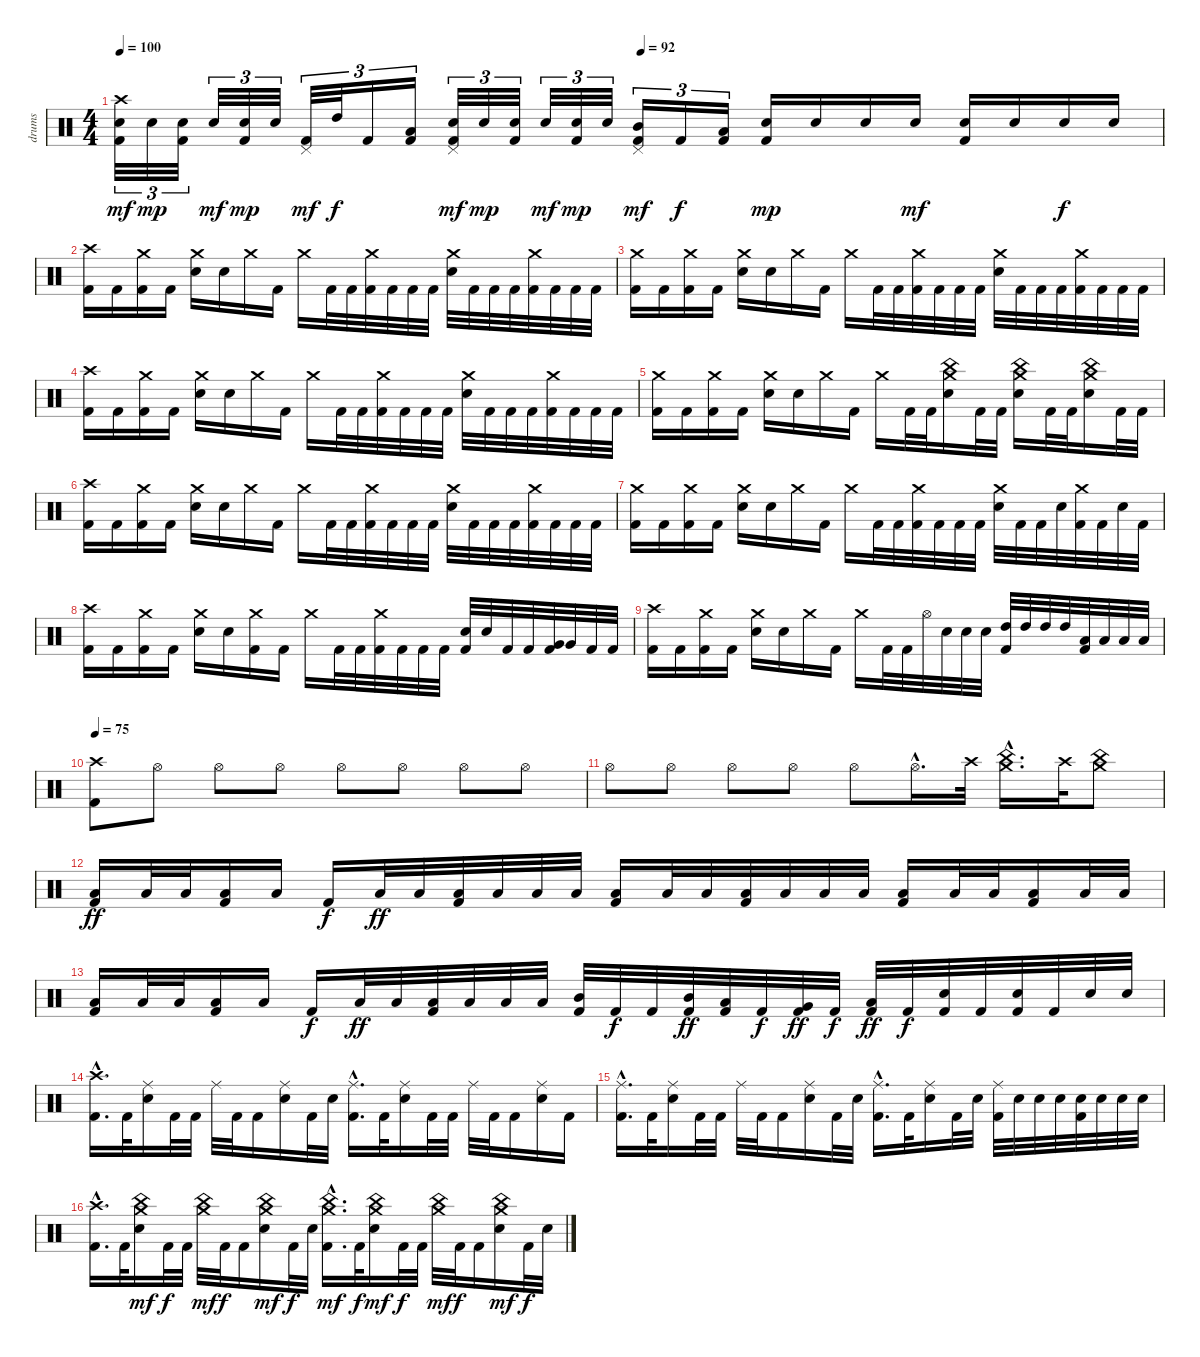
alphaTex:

\track ("drums" "drums") {instrument percussion}
\staff {score}
\articulation defaults
\ts (4 4)
\tempo 100
\tempo (92 0.5)
\clef neutral
\ks c
("Crash high (hit)" "Electric Snare (hit)" "Kick (hit) 2").32{tu (3 2) dy mf} "Electric Snare (hit)".32{tu (3 2) dy mp} ("Electric Snare (hit)" "Kick (hit) 2").32{tu (3 2)} "Electric Snare (hit)".32{tu (3 2) dy mf} ("Electric Snare (hit)" "Kick (hit) 2").32{tu (3 2) dy mp} "Electric Snare (hit)".32{tu (3 2)} ("Pedal Hi-Hat (hit)" "Kick (hit) 2").32{tu (3 2) dy mf} "High Tom (hit)".32{tu (3 2) dy f} "Kick (hit) 2".16{tu (3 2)} ("Low Tom (hit)" "Kick (hit) 2").16{tu (3 2)} ("Pedal Hi-Hat (hit)" "Electric Snare (hit)" "Kick (hit) 2").32{tu (3 2) dy mf} "Electric Snare (hit)".32{tu (3 2) dy mp} ("Electric Snare (hit)" "Kick (hit) 2").32{tu (3 2)} "Electric Snare (hit)".32{tu (3 2) dy mf} ("Electric Snare (hit)" "Kick (hit) 2").32{tu (3 2) dy mp} "Electric Snare (hit)".32{tu (3 2)} ("Pedal Hi-Hat (hit)" "Mid Tom (hit)" "Kick (hit) 2").16{tu (3 2) dy mf} "Kick (hit) 2".16{tu (3 2) dy f} ("Low Floor Tom (hit)" "Kick (hit) 2").16{tu (3 2)} ("Electric Snare (hit)" "Kick (hit) 2").16{dy mp} "Electric Snare (hit)".16 "Electric Snare (hit)".16 "Electric Snare (hit)".16{dy mf} ("Electric Snare (hit)" "Kick (hit) 2").16 "Electric Snare (hit)".16 "Electric Snare (hit)".16{dy f} "Electric Snare (hit)".16 |
("Crash high (hit)" "Kick (hit) 2").16 "Kick (hit) 2".16 ("Crash medium (hit)" "Kick (hit) 2").16 "Kick (hit) 2".16 ("Crash medium (hit)" "Electric Snare (hit)").16 "Electric Snare (hit)".16 "Crash medium (hit)".16 "Kick (hit) 2".16 "Crash medium (hit)".16 "Kick (hit) 2".32 "Kick (hit) 2".32 ("Crash medium (hit)" "Kick (hit) 2").32 "Kick (hit) 2".32 "Kick (hit) 2".32 "Kick (hit) 2".32 ("Crash medium (hit)" "Electric Snare (hit)").32 "Kick (hit) 2".32 "Kick (hit) 2".32 "Kick (hit) 2".32 ("Crash medium (hit)" "Kick (hit) 2").32 "Kick (hit) 2".32 "Kick (hit) 2".32 "Kick (hit) 2".32 |
("Crash medium (hit)" "Kick (hit) 2").16 "Kick (hit) 2".16 ("Crash medium (hit)" "Kick (hit) 2").16 "Kick (hit) 2".16 ("Crash medium (hit)" "Electric Snare (hit)").16 "Electric Snare (hit)".16 "Crash medium (hit)".16 "Kick (hit) 2".16 "Crash medium (hit)".16 "Kick (hit) 2".32 "Kick (hit) 2".32 ("Crash medium (hit)" "Kick (hit) 2").32 "Kick (hit) 2".32 "Kick (hit) 2".32 "Kick (hit) 2".32 ("Crash medium (hit)" "Electric Snare (hit)").32 "Kick (hit) 2".32 "Kick (hit) 2".32 "Kick (hit) 2".32 ("Crash medium (hit)" "Kick (hit) 2").32 "Kick (hit) 2".32 "Kick (hit) 2".32 "Kick (hit) 2".32 |
("Crash high (hit)" "Kick (hit) 2").16 "Kick (hit) 2".16 ("Crash medium (hit)" "Kick (hit) 2").16 "Kick (hit) 2".16 ("Crash medium (hit)" "Electric Snare (hit)").16 "Electric Snare (hit)".16 "Crash medium (hit)".16 "Kick (hit) 2".16 "Crash medium (hit)".16 "Kick (hit) 2".32 "Kick (hit) 2".32 ("Crash medium (hit)" "Kick (hit) 2").32 "Kick (hit) 2".32 "Kick (hit) 2".32 "Kick (hit) 2".32 ("Crash medium (hit)" "Electric Snare (hit)").32 "Kick (hit) 2".32 "Kick (hit) 2".32 "Kick (hit) 2".32 ("Crash medium (hit)" "Kick (hit) 2").32 "Kick (hit) 2".32 "Kick (hit) 2".32 "Kick (hit) 2".32 |
("Crash medium (hit)" "Kick (hit) 2").16 "Kick (hit) 2".16 ("Crash medium (hit)" "Kick (hit) 2").16 "Kick (hit) 2".16 ("Crash medium (hit)" "Electric Snare (hit)").16 "Electric Snare (hit)".16 "Crash medium (hit)".16 "Kick (hit) 2".16 "Crash medium (hit)".16 "Kick (hit) 2".32 "Kick (hit) 2".32 ("Crash medium (hit)" "China (hit)" "Electric Snare (hit)").16 "Kick (hit) 2".32 "Kick (hit) 2".32 ("Crash medium (hit)" "China (hit)" "Electric Snare (hit)").16 "Kick (hit) 2".32 "Kick (hit) 2".32 ("Crash medium (hit)" "China (hit)" "Electric Snare (hit)").16 "Kick (hit) 2".32 "Kick (hit) 2".32 |
("Crash high (hit)" "Kick (hit) 2").16 "Kick (hit) 2".16 ("Crash medium (hit)" "Kick (hit) 2").16 "Kick (hit) 2".16 ("Crash medium (hit)" "Electric Snare (hit)").16 "Electric Snare (hit)".16 "Crash medium (hit)".16 "Kick (hit) 2".16 "Crash medium (hit)".16 "Kick (hit) 2".32 "Kick (hit) 2".32 ("Crash medium (hit)" "Kick (hit) 2").32 "Kick (hit) 2".32 "Kick (hit) 2".32 "Kick (hit) 2".32 ("Crash medium (hit)" "Electric Snare (hit)").32 "Kick (hit) 2".32 "Kick (hit) 2".32 "Kick (hit) 2".32 ("Crash medium (hit)" "Kick (hit) 2").32 "Kick (hit) 2".32 "Kick (hit) 2".32 "Kick (hit) 2".32 |
("Crash medium (hit)" "Kick (hit) 2").16 "Kick (hit) 2".16 ("Crash medium (hit)" "Kick (hit) 2").16 "Kick (hit) 2".16 ("Crash medium (hit)" "Electric Snare (hit)").16 "Electric Snare (hit)".16 "Crash medium (hit)".16 "Kick (hit) 2".16 "Crash medium (hit)".16 "Kick (hit) 2".32 "Kick (hit) 2".32 ("Crash medium (hit)" "Kick (hit) 2").32 "Kick (hit) 2".32 "Kick (hit) 2".32 "Kick (hit) 2".32 ("Crash medium (hit)" "Electric Snare (hit)").32 "Kick (hit) 2".32 "Kick (hit) 2".32 "Electric Snare (hit)".32 ("Crash medium (hit)" "Kick (hit) 2").32 "Kick (hit) 2".32 "Electric Snare (hit)".32 "Kick (hit) 2".32 |
("Crash high (hit)" "Kick (hit) 2").16 "Kick (hit) 2".16 ("Crash medium (hit)" "Kick (hit) 2").16 "Kick (hit) 2".16 ("Crash medium (hit)" "Electric Snare (hit)").16 "Electric Snare (hit)".16 ("Crash medium (hit)" "Kick (hit) 2").16 "Kick (hit) 2".16 "Crash medium (hit)".16 "Kick (hit) 2".32 "Kick (hit) 2".32 ("Crash medium (hit)" "Kick (hit) 2").32 "Kick (hit) 2".32 "Kick (hit) 2".32 "Kick (hit) 2".32 ("Electric Snare (hit)" "Kick (hit) 2").32 "Electric Snare (hit)".32 "Kick (hit) 2".32 "Kick (hit) 2".32 ("Very Low Tom (hit)" "Kick (hit) 2").32 "Very Low Tom (hit)".32 "Kick (hit) 2".32 "Kick (hit) 2".32 |
("Crash high (hit)" "Kick (hit) 2").16 "Kick (hit) 2".16 ("Crash medium (hit)" "Kick (hit) 2").16 "Kick (hit) 2".16 ("Crash medium (hit)" "Electric Snare (hit)").16 "Electric Snare (hit)".16 "Crash medium (hit)".16 "Kick (hit) 2".16 "Crash medium (hit)".16 "Kick (hit) 2".32 "Kick (hit) 2".32 "Hi-Hat (open)".32 "Electric Snare (hit)".32 "Electric Snare (hit)".32 "Electric Snare (hit)".32 ("High Tom (hit)" "Kick (hit) 2").32 "High Tom (hit)".32 "High Tom (hit)".32 "High Tom (hit)".32 ("Low Tom (hit)" "Kick (hit) 2").32 "Low Tom (hit)".32 "Low Tom (hit)".32 "Low Tom (hit)".32 |
\tempo 75
("Crash high (hit)" "Kick (hit) 2").8 "Hi-Hat (open)".8 "Hi-Hat (open)".8 "Hi-Hat (open)".8 "Hi-Hat (open)".8 "Hi-Hat (open)".8 "Hi-Hat (open)".8 "Hi-Hat (open)".8 |
"Hi-Hat (open)".8 "Hi-Hat (open)".8 "Hi-Hat (open)".8 "Hi-Hat (open)".8 "Hi-Hat (open)".8 "Hi-Hat (open)"{hac}.16{d} "Crash high (hit)".32 ("Crash medium (hit)"{hac} "China (hit)"{hac}).16{d} "Crash high (hit)".32 ("Crash medium (hit)" "China (hit)").8 |
("Low Floor Tom (hit)" "Kick (hit) 2").16{dy ff} "Low Floor Tom (hit)".32 "Low Floor Tom (hit)".32 ("Low Floor Tom (hit)" "Kick (hit) 2").16 "Low Floor Tom (hit)".16 "Kick (hit) 2".16{dy f} "Low Floor Tom (hit)".32{dy ff} "Low Floor Tom (hit)".32 ("Low Floor Tom (hit)" "Kick (hit) 2").32 "Low Floor Tom (hit)".32 "Low Floor Tom (hit)".32 "Low Floor Tom (hit)".32 ("Low Floor Tom (hit)" "Kick (hit) 2").16 "Low Floor Tom (hit)".32 "Low Floor Tom (hit)".32 ("Low Floor Tom (hit)" "Kick (hit) 2").32 "Low Floor Tom (hit)".32 "Low Floor Tom (hit)".32 "Low Floor Tom (hit)".32 ("Low Floor Tom (hit)" "Kick (hit) 2").16 "Low Floor Tom (hit)".32 "Low Floor Tom (hit)".32 ("Low Floor Tom (hit)" "Kick (hit) 2").16 "Low Floor Tom (hit)".32 "Low Floor Tom (hit)".32 |
("Low Floor Tom (hit)" "Kick (hit) 2").16 "Low Floor Tom (hit)".32 "Low Floor Tom (hit)".32 ("Low Floor Tom (hit)" "Kick (hit) 2").16 "Low Floor Tom (hit)".16 "Kick (hit) 2".16{dy f} "Low Floor Tom (hit)".32{dy ff} "Low Floor Tom (hit)".32 ("Low Floor Tom (hit)" "Kick (hit) 2").32 "Low Floor Tom (hit)".32 "Low Floor Tom (hit)".32 "Low Floor Tom (hit)".32 ("Mid Tom (hit)" "Kick (hit) 2").32 "Kick (hit) 2".32{dy f} "Kick (hit) 2".32 ("Mid Tom (hit)" "Kick (hit) 2").32{dy ff} ("Low Tom (hit)" "Kick (hit) 2").32 "Kick (hit) 2".32{dy f} ("Very Low Tom (hit)" "Kick (hit) 2").32{dy ff} "Kick (hit) 2".32{dy f} ("Low Floor Tom (hit)" "Kick (hit) 2").32{dy ff} "Kick (hit) 2".32{dy f} ("Electric Snare (hit)" "Kick (hit) 2").32 "Kick (hit) 2".32 ("Electric Snare (hit)" "Kick (hit) 2").32 "Kick (hit) 2".32 "Electric Snare (hit)".32 "Electric Snare (hit)".32 |
("Crash high (hit)"{hac} "Kick (hit) 2"{hac}).16{d} "Kick (hit) 2".32 ("Ride (middle)" "Electric Snare (hit)").16 "Kick (hit) 2".32 "Kick (hit) 2".32 "Ride (middle)".32 "Kick (hit) 2".32 "Kick (hit) 2".16 ("Ride (middle)" "Electric Snare (hit)").16 "Kick (hit) 2".32 "Electric Snare (hit)".32 ("Ride (middle)"{hac} "Kick (hit) 2"{hac}).16{d} "Kick (hit) 2".32 ("Ride (middle)" "Electric Snare (hit)").16 "Kick (hit) 2".32 "Kick (hit) 2".32 "Ride (middle)".32 "Kick (hit) 2".32 "Kick (hit) 2".16 ("Ride (middle)" "Electric Snare (hit)").16 "Kick (hit) 2".16 |
("Ride (middle)"{hac} "Kick (hit) 2"{hac}).16{d} "Kick (hit) 2".32 ("Ride (middle)" "Electric Snare (hit)").16 "Kick (hit) 2".32 "Kick (hit) 2".32 "Ride (middle)".32 "Kick (hit) 2".32 "Kick (hit) 2".16 ("Ride (middle)" "Electric Snare (hit)").16 "Kick (hit) 2".32 "Electric Snare (hit)".32 ("Ride (middle)"{hac} "Kick (hit) 2"{hac}).16{d} "Kick (hit) 2".32 ("Ride (middle)" "Electric Snare (hit)").16 "Kick (hit) 2".32 "Electric Snare (hit)".32 ("Ride (middle)" "Kick (hit) 2").32 "Electric Snare (hit)".32 "Electric Snare (hit)".32 "Electric Snare (hit)".32 ("Electric Snare (hit)" "Kick (hit) 2").32 "Electric Snare (hit)".32 "Electric Snare (hit)".32 "Electric Snare (hit)".32 |
("Crash high (hit)"{hac} "Kick (hit) 2"{hac}).16{d} "Kick (hit) 2".32 ("Crash medium (hit)" "China (hit)" "Electric Snare (hit)").16{dy mf} "Kick (hit) 2".32{dy f} "Kick (hit) 2".32 ("Crash medium (hit)" "China (hit)").32{dy mf} "Kick (hit) 2".32{dy f} "Kick (hit) 2".16 ("Crash medium (hit)" "China (hit)" "Electric Snare (hit)").16{dy mf} "Kick (hit) 2".32{dy f} "Electric Snare (hit)".32 ("Crash medium (hit)"{hac} "China (hit)"{hac} "Kick (hit) 2"{hac}).16{d dy mf} "Kick (hit) 2".32{dy f} ("Crash medium (hit)" "China (hit)" "Electric Snare (hit)").16{dy mf} "Kick (hit) 2".32{dy f} "Kick (hit) 2".32 ("Crash medium (hit)" "China (hit)").32{dy mf} "Kick (hit) 2".32{dy f} "Kick (hit) 2".16 ("Crash medium (hit)" "China (hit)" "Electric Snare (hit)").16{dy mf} "Kick (hit) 2".32{dy f} "Electric Snare (hit)".32
